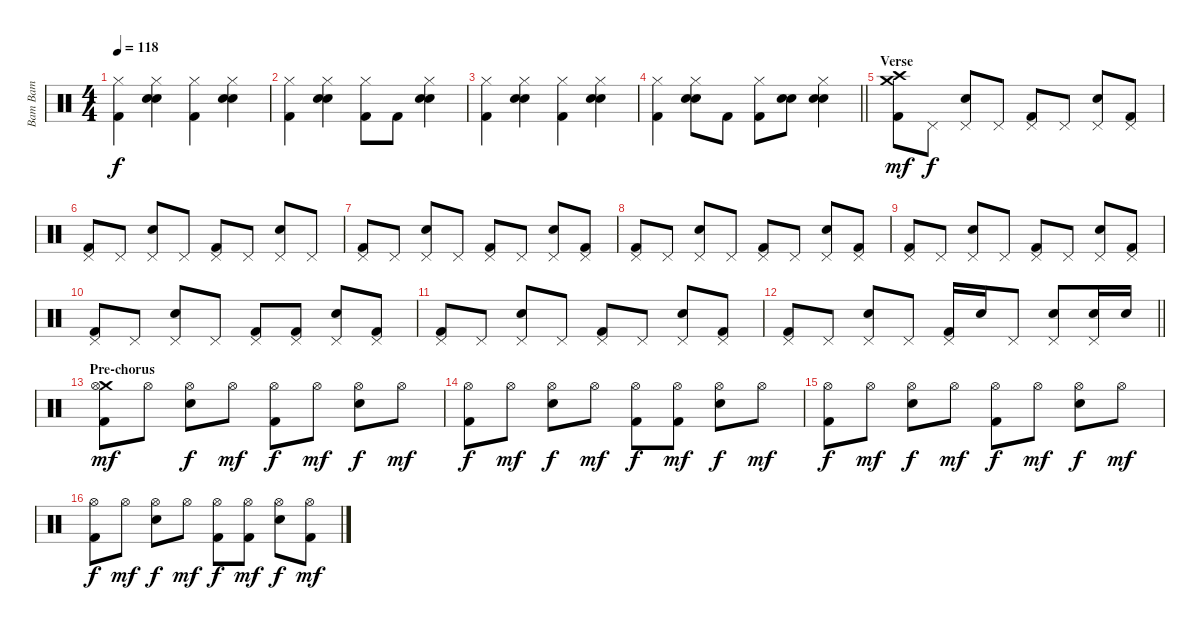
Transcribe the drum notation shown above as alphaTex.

\track ("Bam Bam" "Bam Bam") {instrument percussion}
\staff {score}
\articulation defaults
\ts (4 4)
\tempo 118
\clef neutral
\ks c
("Hi-Hat (closed)" "Kick (hit) 2").4{dy f} ("Hi-Hat (closed)" "Electric Snare (hit)" "Electric Snare (hit)").4 ("Hi-Hat (closed)" "Kick (hit) 2").4 ("Hi-Hat (closed)" "Electric Snare (hit)" "Electric Snare (hit)").4 |
("Hi-Hat (closed)" "Kick (hit) 2").4 ("Hi-Hat (closed)" "Electric Snare (hit)" "Electric Snare (hit)").4 ("Hi-Hat (closed)" "Kick (hit) 2").8 "Kick (hit) 2".8 ("Hi-Hat (closed)" "Electric Snare (hit)" "Electric Snare (hit)").4 |
("Hi-Hat (closed)" "Kick (hit) 2").4 ("Hi-Hat (closed)" "Electric Snare (hit)" "Electric Snare (hit)").4 ("Hi-Hat (closed)" "Kick (hit) 2").4 ("Hi-Hat (closed)" "Electric Snare (hit)" "Electric Snare (hit)").4 |
\barLineRight lightlight
("Hi-Hat (closed)" "Kick (hit) 2").4 ("Hi-Hat (closed)" "Electric Snare (hit)" "Electric Snare (hit)").8 "Kick (hit) 2".8 ("Hi-Hat (closed)" "Kick (hit) 2").8 ("Electric Snare (hit)" "Electric Snare (hit)").8 ("Hi-Hat (closed)" "Electric Snare (hit)" "Electric Snare (hit)").4 |
\section ("" "Verse")
("Crash medium (hit)" "Crash high (hit)" "Kick (hit) 2").8{dy mf} "Pedal Hi-Hat (hit)".8{dy f} ("Pedal Hi-Hat (hit)" "Electric Snare (hit)").8 "Pedal Hi-Hat (hit)".8 ("Pedal Hi-Hat (hit)" "Kick (hit) 2").8 "Pedal Hi-Hat (hit)".8 ("Pedal Hi-Hat (hit)" "Electric Snare (hit)").8 ("Pedal Hi-Hat (hit)" "Kick (hit) 2").8 |
("Pedal Hi-Hat (hit)" "Kick (hit) 2").8 "Pedal Hi-Hat (hit)".8 ("Pedal Hi-Hat (hit)" "Electric Snare (hit)").8 "Pedal Hi-Hat (hit)".8 ("Pedal Hi-Hat (hit)" "Kick (hit) 2").8 "Pedal Hi-Hat (hit)".8 ("Pedal Hi-Hat (hit)" "Electric Snare (hit)").8 "Pedal Hi-Hat (hit)".8 |
("Pedal Hi-Hat (hit)" "Kick (hit) 2").8 "Pedal Hi-Hat (hit)".8 ("Pedal Hi-Hat (hit)" "Electric Snare (hit)").8 "Pedal Hi-Hat (hit)".8 ("Pedal Hi-Hat (hit)" "Kick (hit) 2").8 "Pedal Hi-Hat (hit)".8 ("Pedal Hi-Hat (hit)" "Electric Snare (hit)").8 ("Pedal Hi-Hat (hit)" "Kick (hit) 2").8 |
("Pedal Hi-Hat (hit)" "Kick (hit) 2").8 "Pedal Hi-Hat (hit)".8 ("Pedal Hi-Hat (hit)" "Electric Snare (hit)").8 "Pedal Hi-Hat (hit)".8 ("Pedal Hi-Hat (hit)" "Kick (hit) 2").8 "Pedal Hi-Hat (hit)".8 ("Pedal Hi-Hat (hit)" "Electric Snare (hit)").8 ("Pedal Hi-Hat (hit)" "Kick (hit) 2").8 |
("Pedal Hi-Hat (hit)" "Kick (hit) 2").8 "Pedal Hi-Hat (hit)".8 ("Pedal Hi-Hat (hit)" "Electric Snare (hit)").8 "Pedal Hi-Hat (hit)".8 ("Pedal Hi-Hat (hit)" "Kick (hit) 2").8 "Pedal Hi-Hat (hit)".8 ("Pedal Hi-Hat (hit)" "Electric Snare (hit)").8 ("Pedal Hi-Hat (hit)" "Kick (hit) 2").8 |
("Pedal Hi-Hat (hit)" "Kick (hit) 2").8 "Pedal Hi-Hat (hit)".8 ("Pedal Hi-Hat (hit)" "Electric Snare (hit)").8 "Pedal Hi-Hat (hit)".8 ("Pedal Hi-Hat (hit)" "Kick (hit) 2").8 ("Pedal Hi-Hat (hit)" "Kick (hit) 2").8 ("Pedal Hi-Hat (hit)" "Electric Snare (hit)").8 ("Pedal Hi-Hat (hit)" "Kick (hit) 2").8 |
("Pedal Hi-Hat (hit)" "Kick (hit) 2").8 "Pedal Hi-Hat (hit)".8 ("Pedal Hi-Hat (hit)" "Electric Snare (hit)").8 "Pedal Hi-Hat (hit)".8 ("Pedal Hi-Hat (hit)" "Kick (hit) 2").8 "Pedal Hi-Hat (hit)".8 ("Pedal Hi-Hat (hit)" "Electric Snare (hit)").8 ("Pedal Hi-Hat (hit)" "Kick (hit) 2").8 |
\barLineRight lightlight
("Pedal Hi-Hat (hit)" "Kick (hit) 2").8 "Pedal Hi-Hat (hit)".8 ("Pedal Hi-Hat (hit)" "Electric Snare (hit)").8 "Pedal Hi-Hat (hit)".8 ("Pedal Hi-Hat (hit)" "Kick (hit) 2").16 "Electric Snare (hit)".16 "Pedal Hi-Hat (hit)".8 ("Pedal Hi-Hat (hit)" "Electric Snare (hit)").8 ("Pedal Hi-Hat (hit)" "Electric Snare (hit)").16 "Electric Snare (hit)".16 |
\section ("" "Pre-chorus")
("Crash medium (hit)" "Hi-Hat (open)" "Kick (hit) 2").8{dy mf} "Hi-Hat (open)".8 ("Hi-Hat (open)" "Electric Snare (hit)").8{dy f} "Hi-Hat (open)".8{dy mf} ("Hi-Hat (open)" "Kick (hit) 2").8{dy f} "Hi-Hat (open)".8{dy mf} ("Hi-Hat (open)" "Electric Snare (hit)").8{dy f} "Hi-Hat (open)".8{dy mf} |
("Hi-Hat (open)" "Kick (hit) 2").8{dy f} "Hi-Hat (open)".8{dy mf} ("Hi-Hat (open)" "Electric Snare (hit)").8{dy f} "Hi-Hat (open)".8{dy mf} ("Hi-Hat (open)" "Kick (hit) 2").8{dy f} ("Hi-Hat (open)" "Kick (hit) 2").8{dy mf} ("Hi-Hat (open)" "Electric Snare (hit)").8{dy f} "Hi-Hat (open)".8{dy mf} |
("Hi-Hat (open)" "Kick (hit) 2").8{dy f} "Hi-Hat (open)".8{dy mf} ("Hi-Hat (open)" "Electric Snare (hit)").8{dy f} "Hi-Hat (open)".8{dy mf} ("Hi-Hat (open)" "Kick (hit) 2").8{dy f} "Hi-Hat (open)".8{dy mf} ("Hi-Hat (open)" "Electric Snare (hit)").8{dy f} "Hi-Hat (open)".8{dy mf} |
("Hi-Hat (open)" "Kick (hit) 2").8{dy f} "Hi-Hat (open)".8{dy mf} ("Hi-Hat (open)" "Electric Snare (hit)").8{dy f} "Hi-Hat (open)".8{dy mf} ("Hi-Hat (open)" "Kick (hit) 2").8{dy f} ("Hi-Hat (open)" "Kick (hit) 2").8{dy mf} ("Hi-Hat (open)" "Electric Snare (hit)").8{dy f} ("Hi-Hat (open)" "Kick (hit) 2").8{dy mf}
